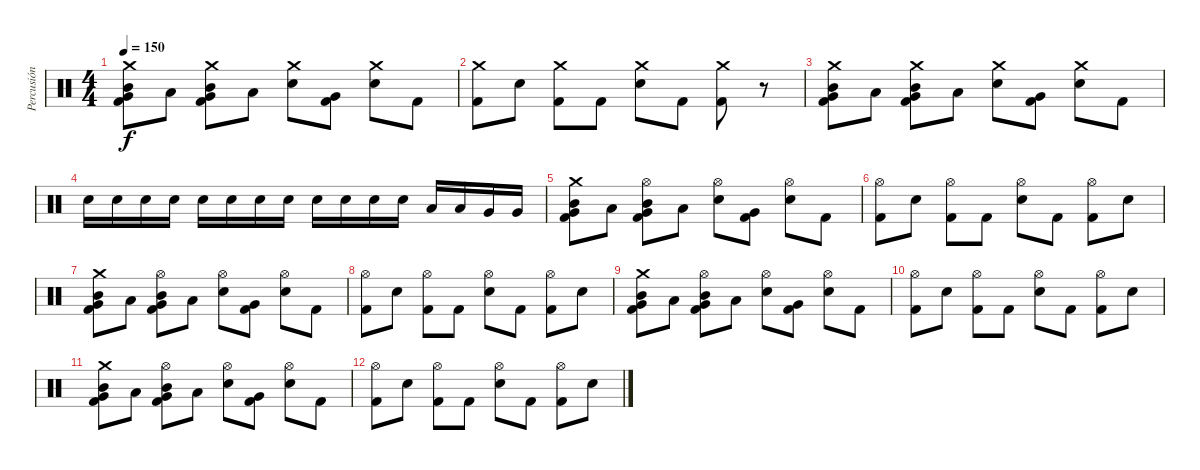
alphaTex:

\track ("Percusión" "Percusión") {instrument percussion}
\staff {score}
\articulation defaults
\ts (4 4)
\tempo 150
\clef neutral
\ks c
("Crash medium (hit)" "Mid Tom (hit)" "Very Low Tom (hit)" "Kick (hit) 2").8{dy f} "Low Tom (hit)".8 ("Crash medium (hit)" "Mid Tom (hit)" "Very Low Tom (hit)" "Kick (hit) 2").8 "Low Tom (hit)".8 ("Crash medium (hit)" "Electric Snare (hit)").8 ("Very Low Tom (hit)" "Kick (hit) 2").8 ("Crash medium (hit)" "Electric Snare (hit)").8 "Kick (hit) 2".8 |
("Crash medium (hit)" "Kick (hit) 2").8 "Electric Snare (hit)".8 ("Crash medium (hit)" "Kick (hit) 2").8 "Kick (hit) 2".8 ("Crash medium (hit)" "Electric Snare (hit)").8 "Kick (hit) 2".8 ("Crash medium (hit)" "Kick (hit) 2").8 r.8 |
("Crash medium (hit)" "Mid Tom (hit)" "Very Low Tom (hit)" "Kick (hit) 2").8 "Low Tom (hit)".8 ("Crash medium (hit)" "Mid Tom (hit)" "Very Low Tom (hit)" "Kick (hit) 2").8 "Low Tom (hit)".8 ("Crash medium (hit)" "Electric Snare (hit)").8 ("Very Low Tom (hit)" "Kick (hit) 2").8 ("Crash medium (hit)" "Electric Snare (hit)").8 "Kick (hit) 2".8 |
"Electric Snare (hit)".16 "Electric Snare (hit)".16 "Electric Snare (hit)".16 "Electric Snare (hit)".16 "Electric Snare (hit)".16 "Electric Snare (hit)".16 "Electric Snare (hit)".16 "Electric Snare (hit)".16 "Electric Snare (hit)".16 "Electric Snare (hit)".16 "Electric Snare (hit)".16 "Electric Snare (hit)".16 "Low Tom (hit)".16 "Low Tom (hit)".16 "Very Low Tom (hit)".16 "Very Low Tom (hit)".16 |
("Crash medium (hit)" "Mid Tom (hit)" "Very Low Tom (hit)" "Kick (hit) 2").8 "Low Tom (hit)".8 ("Hi-Hat (open)" "Mid Tom (hit)" "Very Low Tom (hit)" "Kick (hit) 2").8 "Low Tom (hit)".8 ("Hi-Hat (open)" "Electric Snare (hit)").8 ("Very Low Tom (hit)" "Kick (hit) 2").8 ("Hi-Hat (open)" "Electric Snare (hit)").8 "Kick (hit) 2".8 |
("Hi-Hat (open)" "Kick (hit) 2").8 "Electric Snare (hit)".8 ("Hi-Hat (open)" "Kick (hit) 2").8 "Kick (hit) 2".8 ("Hi-Hat (open)" "Electric Snare (hit)").8 "Kick (hit) 2".8 ("Hi-Hat (open)" "Kick (hit) 2").8 "Electric Snare (hit)".8 |
("Crash medium (hit)" "Mid Tom (hit)" "Very Low Tom (hit)" "Kick (hit) 2").8 "Low Tom (hit)".8 ("Hi-Hat (open)" "Mid Tom (hit)" "Very Low Tom (hit)" "Kick (hit) 2").8 "Low Tom (hit)".8 ("Hi-Hat (open)" "Electric Snare (hit)").8 ("Very Low Tom (hit)" "Kick (hit) 2").8 ("Hi-Hat (open)" "Electric Snare (hit)").8 "Kick (hit) 2".8 |
("Hi-Hat (open)" "Kick (hit) 2").8 "Electric Snare (hit)".8 ("Hi-Hat (open)" "Kick (hit) 2").8 "Kick (hit) 2".8 ("Hi-Hat (open)" "Electric Snare (hit)").8 "Kick (hit) 2".8 ("Hi-Hat (open)" "Kick (hit) 2").8 "Electric Snare (hit)".8 |
("Crash medium (hit)" "Mid Tom (hit)" "Very Low Tom (hit)" "Kick (hit) 2").8 "Low Tom (hit)".8 ("Hi-Hat (open)" "Mid Tom (hit)" "Very Low Tom (hit)" "Kick (hit) 2").8 "Low Tom (hit)".8 ("Hi-Hat (open)" "Electric Snare (hit)").8 ("Very Low Tom (hit)" "Kick (hit) 2").8 ("Hi-Hat (open)" "Electric Snare (hit)").8 "Kick (hit) 2".8 |
("Hi-Hat (open)" "Kick (hit) 2").8 "Electric Snare (hit)".8 ("Hi-Hat (open)" "Kick (hit) 2").8 "Kick (hit) 2".8 ("Hi-Hat (open)" "Electric Snare (hit)").8 "Kick (hit) 2".8 ("Hi-Hat (open)" "Kick (hit) 2").8 "Electric Snare (hit)".8 |
("Crash medium (hit)" "Mid Tom (hit)" "Very Low Tom (hit)" "Kick (hit) 2").8 "Low Tom (hit)".8 ("Hi-Hat (open)" "Mid Tom (hit)" "Very Low Tom (hit)" "Kick (hit) 2").8 "Low Tom (hit)".8 ("Hi-Hat (open)" "Electric Snare (hit)").8 ("Very Low Tom (hit)" "Kick (hit) 2").8 ("Hi-Hat (open)" "Electric Snare (hit)").8 "Kick (hit) 2".8 |
("Hi-Hat (open)" "Kick (hit) 2").8 "Electric Snare (hit)".8 ("Hi-Hat (open)" "Kick (hit) 2").8 "Kick (hit) 2".8 ("Hi-Hat (open)" "Electric Snare (hit)").8 "Kick (hit) 2".8 ("Hi-Hat (open)" "Kick (hit) 2").8 "Electric Snare (hit)".8
